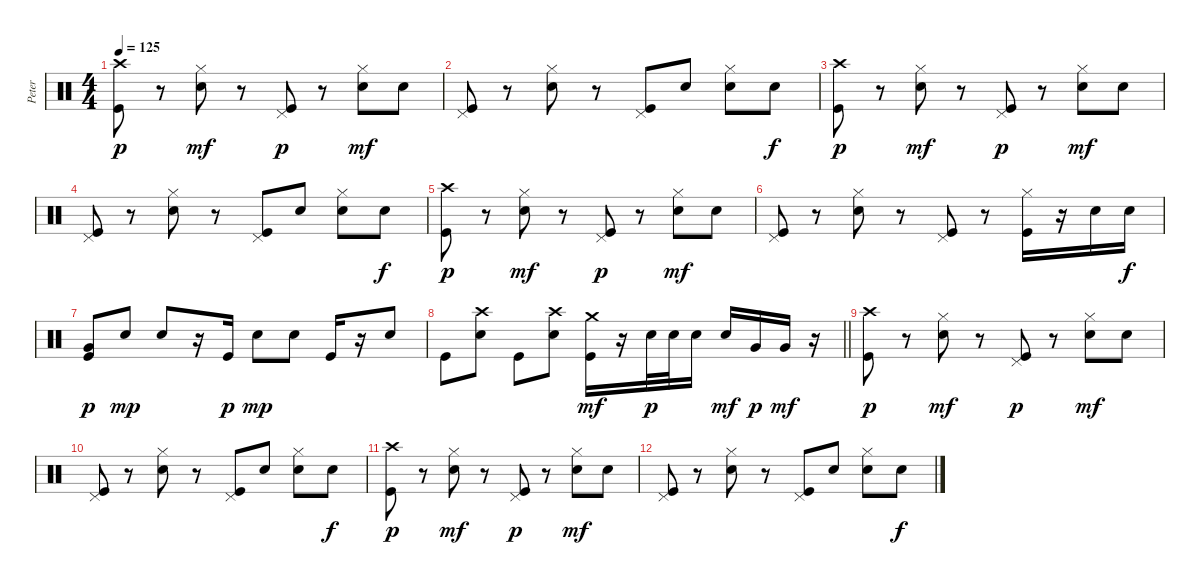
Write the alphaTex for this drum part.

\track ("Peter" "Peter") {instrument percussion}
\staff {score}
\articulation defaults
\ts (4 4)
\tempo 125
\clef neutral
\ks c
("Crash high (hit)" "Kick (hit)").8{dy p} r.8 ("Hi-Hat (closed)" "Snare (hit) 2").8{dy mf} r.8 ("Pedal Hi-Hat (hit)" "Kick (hit)").8{dy p} r.8 ("Hi-Hat (closed)" "Snare (hit) 2").8{dy mf} "Snare (hit) 2".8 |
("Pedal Hi-Hat (hit)" "Kick (hit)").8 r.8 ("Hi-Hat (closed)" "Snare (hit) 2").8 r.8 ("Pedal Hi-Hat (hit)" "Kick (hit)").8 "Snare (hit) 2".8 ("Hi-Hat (closed)" "Snare (hit) 2").8 "Snare (hit) 2".8{dy f} |
("Crash high (hit)" "Kick (hit)").8{dy p} r.8 ("Hi-Hat (closed)" "Snare (hit) 2").8{dy mf} r.8 ("Pedal Hi-Hat (hit)" "Kick (hit)").8{dy p} r.8 ("Hi-Hat (closed)" "Snare (hit) 2").8{dy mf} "Snare (hit) 2".8 |
("Pedal Hi-Hat (hit)" "Kick (hit)").8 r.8 ("Hi-Hat (closed)" "Snare (hit) 2").8 r.8 ("Pedal Hi-Hat (hit)" "Kick (hit)").8 "Snare (hit) 2".8 ("Hi-Hat (closed)" "Snare (hit) 2").8 "Snare (hit) 2".8{dy f} |
("Crash high (hit)" "Kick (hit)").8{dy p} r.8 ("Hi-Hat (closed)" "Snare (hit) 2").8{dy mf} r.8 ("Pedal Hi-Hat (hit)" "Kick (hit)").8{dy p} r.8 ("Hi-Hat (closed)" "Snare (hit) 2").8{dy mf} "Snare (hit) 2".8 |
("Pedal Hi-Hat (hit)" "Kick (hit)").8 r.8 ("Hi-Hat (closed)" "Snare (hit) 2").8 r.8 ("Pedal Hi-Hat (hit)" "Kick (hit)").8 r.8 ("Hi-Hat (closed)" "Kick (hit)").16 r.16 "Snare (hit) 2".16 "Snare (hit) 2".16{dy f} |
("Very Low Tom (hit)" "Kick (hit)").8{dy p} "Snare (hit) 2".8{dy mp} "Snare (hit) 2".8 r.16 "Kick (hit)".16{dy p} "Snare (hit) 2".8{dy mp} "Snare (hit) 2".8 "Kick (hit)".16 r.16 "Snare (hit) 2".8 |
\barLineRight lightlight "Kick (hit)".8
("Crash high (hit)" "Snare (hit) 2").8 "Kick (hit)".8 ("Crash high (hit)" "Snare (hit) 2").8 ("Crash medium (hit)" "Kick (hit)").16{dy mf} r.16 "Snare (hit) 2".32{dy p} "Snare (hit) 2".32 "Snare (hit) 2".16 "Snare (hit) 2".16{dy mf} "Very Low Tom (hit)".16{dy p} "Very Low Tom (hit)".16{dy mf} r.16 |
("Crash high (hit)" "Kick (hit)").8{dy p} r.8 ("Hi-Hat (closed)" "Snare (hit) 2").8{dy mf} r.8 ("Pedal Hi-Hat (hit)" "Kick (hit)").8{dy p} r.8 ("Hi-Hat (closed)" "Snare (hit) 2").8{dy mf} "Snare (hit) 2".8 |
("Pedal Hi-Hat (hit)" "Kick (hit)").8 r.8 ("Hi-Hat (closed)" "Snare (hit) 2").8 r.8 ("Pedal Hi-Hat (hit)" "Kick (hit)").8 "Snare (hit) 2".8 ("Hi-Hat (closed)" "Snare (hit) 2").8 "Snare (hit) 2".8{dy f} |
("Crash high (hit)" "Kick (hit)").8{dy p} r.8 ("Hi-Hat (closed)" "Snare (hit) 2").8{dy mf} r.8 ("Pedal Hi-Hat (hit)" "Kick (hit)").8{dy p} r.8 ("Hi-Hat (closed)" "Snare (hit) 2").8{dy mf} "Snare (hit) 2".8 |
("Pedal Hi-Hat (hit)" "Kick (hit)").8 r.8 ("Hi-Hat (closed)" "Snare (hit) 2").8 r.8 ("Pedal Hi-Hat (hit)" "Kick (hit)").8 "Snare (hit) 2".8 ("Hi-Hat (closed)" "Snare (hit) 2").8 "Snare (hit) 2".8{dy f}
